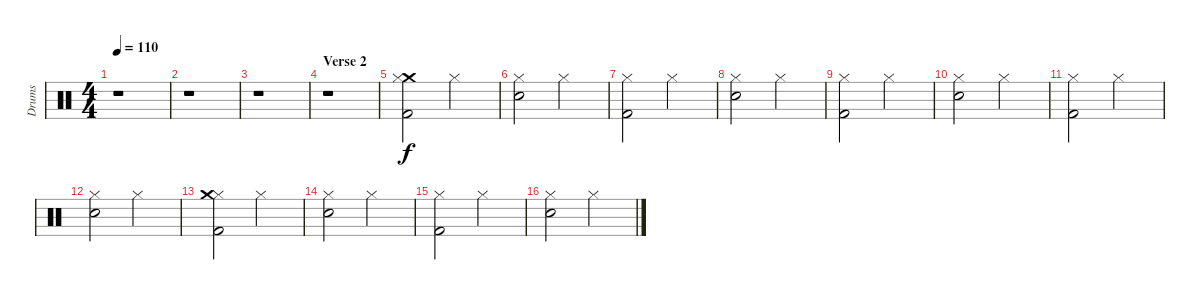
\track ("Drums" "Drums") {instrument percussion}
\staff {score}
\articulation defaults
\ts (4 4)
\tempo 110
\clef neutral
\ks c
r.1{dy f} |
r.1 |
r.1 |
\section ("" "Verse 2")
r.1 |
("Crash medium (hit)" "Kick (hit) 2" "Hi-Hat (closed)").2 "Hi-Hat (closed)".2 |
("Hi-Hat (closed)" "Snare (hit) 2").2 "Hi-Hat (closed)".2 |
("Hi-Hat (closed)" "Kick (hit) 2").2 "Hi-Hat (closed)".2 |
("Hi-Hat (closed)" "Snare (hit) 2").2 "Hi-Hat (closed)".2 |
("Hi-Hat (closed)" "Kick (hit) 2").2 "Hi-Hat (closed)".2 |
("Hi-Hat (closed)" "Snare (hit) 2").2 "Hi-Hat (closed)".2 |
("Hi-Hat (closed)" "Kick (hit) 2").2 "Hi-Hat (closed)".2 |
("Hi-Hat (closed)" "Snare (hit) 2").2 "Hi-Hat (closed)".2 |
("Hi-Hat (closed)" "Kick (hit) 2" "Crash medium (hit)").2 "Hi-Hat (closed)".2 |
("Hi-Hat (closed)" "Snare (hit) 2").2 "Hi-Hat (closed)".2 |
("Hi-Hat (closed)" "Kick (hit) 2").2 "Hi-Hat (closed)".2 |
("Hi-Hat (closed)" "Snare (hit) 2").2 "Hi-Hat (closed)".2
